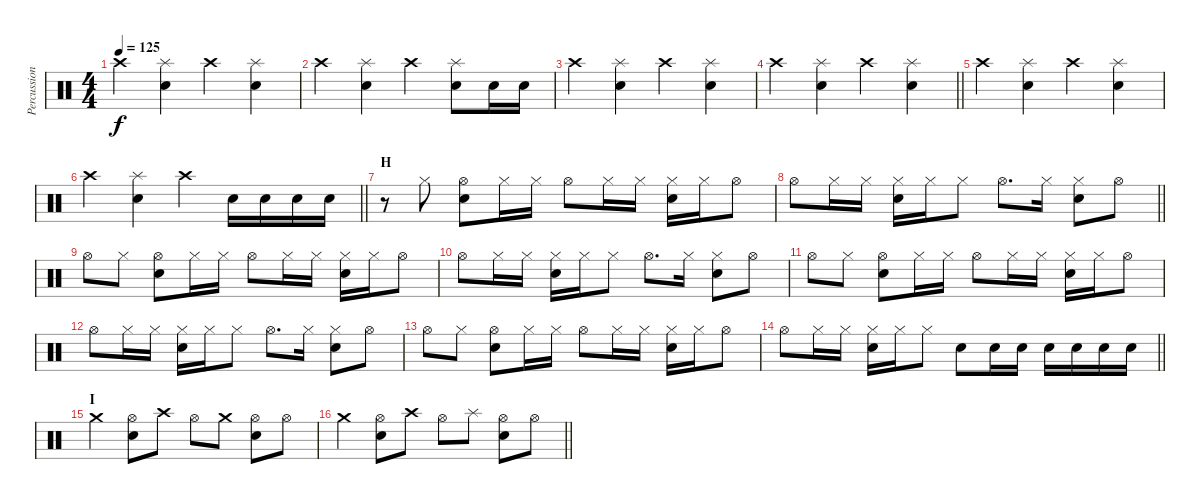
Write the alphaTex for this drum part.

\track ("Percussion" "Percussion") {instrument percussion}
\staff {score}
\articulation defaults
\ts (4 4)
\tempo 125
\clef neutral
\ks c "Crash high (hit)".4{dy f}
("Splash (hit)" "Snare (hit) 2").4 "Crash high (hit)".4 ("Splash (hit)" "Snare (hit) 2").4 |
"Crash high (hit)".4 ("Splash (hit)" "Snare (hit) 2").4 "Crash high (hit)".4 ("Splash (hit)" "Snare (hit) 2").8 "Snare (hit) 2".16 "Snare (hit) 2".16 |
"Crash high (hit)".4 ("Splash (hit)" "Snare (hit) 2").4 "Crash high (hit)".4 ("Splash (hit)" "Snare (hit) 2").4 |
\barLineRight lightlight "Crash high (hit)".4
("Splash (hit)" "Snare (hit) 2").4 "Crash high (hit)".4 ("Splash (hit)" "Snare (hit) 2").4 |
"Crash high (hit)".4 ("Splash (hit)" "Snare (hit) 2").4 "Crash high (hit)".4 ("Splash (hit)" "Snare (hit) 2").4 |
\barLineRight lightlight "Crash high (hit)".4
("Splash (hit)" "Snare (hit) 2").4 "Crash high (hit)".4 "Snare (hit) 2".16 "Snare (hit) 2".16 "Snare (hit) 2".16 "Snare (hit) 2".16 |
\section ("" "H")
r.8 "Hi-Hat (closed)".8 ("Hi-Hat (open)" "Snare (hit) 2").8 "Hi-Hat (closed)".16 "Hi-Hat (closed)".16 "Hi-Hat (open)".8 "Hi-Hat (closed)".16 "Hi-Hat (closed)".16 ("Hi-Hat (closed)" "Snare (hit) 2").16 "Hi-Hat (closed)".16 "Hi-Hat (open)".8 |
\barLineRight lightlight "Hi-Hat (open)".8 "Hi-Hat (closed)".16 "Hi-Hat (closed)".16
("Hi-Hat (closed)" "Snare (hit) 2").16 "Hi-Hat (closed)".16 "Hi-Hat (closed)".8 "Hi-Hat (open)".8{d} "Hi-Hat (closed)".16 ("Hi-Hat (closed)" "Snare (hit) 2").8 "Hi-Hat (open)".8 |
"Hi-Hat (open)".8 "Hi-Hat (closed)".8 ("Hi-Hat (open)" "Snare (hit) 2").8 "Hi-Hat (closed)".16 "Hi-Hat (closed)".16 "Hi-Hat (open)".8 "Hi-Hat (closed)".16 "Hi-Hat (closed)".16 ("Hi-Hat (closed)" "Snare (hit) 2").16 "Hi-Hat (closed)".16 "Hi-Hat (open)".8 |
"Hi-Hat (open)".8 "Hi-Hat (closed)".16 "Hi-Hat (closed)".16 ("Hi-Hat (closed)" "Snare (hit) 2").16 "Hi-Hat (closed)".16 "Hi-Hat (closed)".8 "Hi-Hat (open)".8{d} "Hi-Hat (closed)".16 ("Hi-Hat (closed)" "Snare (hit) 2").8 "Hi-Hat (open)".8 |
"Hi-Hat (open)".8 "Hi-Hat (closed)".8 ("Hi-Hat (open)" "Snare (hit) 2").8 "Hi-Hat (closed)".16 "Hi-Hat (closed)".16 "Hi-Hat (open)".8 "Hi-Hat (closed)".16 "Hi-Hat (closed)".16 ("Hi-Hat (closed)" "Snare (hit) 2").16 "Hi-Hat (closed)".16 "Hi-Hat (open)".8 |
"Hi-Hat (open)".8 "Hi-Hat (closed)".16 "Hi-Hat (closed)".16 ("Hi-Hat (closed)" "Snare (hit) 2").16 "Hi-Hat (closed)".16 "Hi-Hat (closed)".8 "Hi-Hat (open)".8{d} "Hi-Hat (closed)".16 ("Hi-Hat (closed)" "Snare (hit) 2").8 "Hi-Hat (open)".8 |
"Hi-Hat (open)".8 "Hi-Hat (closed)".8 ("Hi-Hat (open)" "Snare (hit) 2").8 "Hi-Hat (closed)".16 "Hi-Hat (closed)".16 "Hi-Hat (open)".8 "Hi-Hat (closed)".16 "Hi-Hat (closed)".16 ("Hi-Hat (closed)" "Snare (hit) 2").16 "Hi-Hat (closed)".16 "Hi-Hat (open)".8 |
\barLineRight lightlight "Hi-Hat (open)".8 "Hi-Hat (closed)".16 "Hi-Hat (closed)".16
("Hi-Hat (closed)" "Snare (hit) 2").16 "Hi-Hat (closed)".16 "Hi-Hat (closed)".8 "Snare (hit) 2".8 "Snare (hit) 2".16 "Snare (hit) 2".16 "Snare (hit) 2".16 "Snare (hit) 2".16 "Snare (hit) 2".16 "Snare (hit) 2".16 |
\section ("" "I")
"Crash medium (hit)".4 ("Hi-Hat (open)" "Snare (hit) 2").8 "Crash high (hit)".8 "Hi-Hat (open)".8 "Crash medium (hit)".8 ("Hi-Hat (open)" "Snare (hit) 2").8 "Hi-Hat (open)".8 |
\barLineRight lightlight "Crash medium (hit)".4
("Hi-Hat (open)" "Snare (hit) 2").8 "Crash high (hit)".8 "Hi-Hat (open)".8 "Splash (hit)".8 ("Hi-Hat (open)" "Snare (hit) 2").8 "Hi-Hat (open)".8
